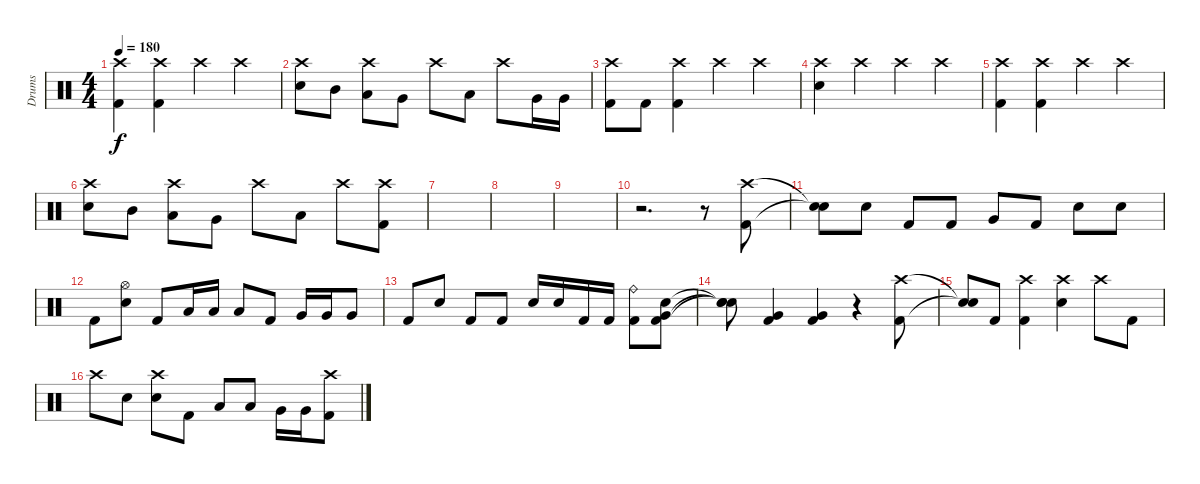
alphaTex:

\track ("Drums" "Drums") {instrument percussion}
\staff {score}
\articulation defaults
\ts (4 4)
\tempo 180
\clef neutral
\ks c
("Crash high (hit)" "Kick (hit) 2").4{dy f} ("Crash high (hit)" "Kick (hit) 2").4 "Crash high (hit)".4 "Crash high (hit)".4 |
("Crash high (hit)" "Electric Snare (hit)").8 "Mid Tom (hit)".8 ("Crash high (hit)" "Low Tom (hit)").8 "Very Low Tom (hit)".8 "Crash high (hit)".8 "Low Tom (hit)".8 "Crash high (hit)".8 "Very Low Tom (hit)".16 "Very Low Tom (hit)".16 |
("Crash high (hit)" "Kick (hit) 2").8 "Kick (hit) 2".8 ("Crash high (hit)" "Kick (hit) 2").4 "Crash high (hit)".4 "Crash high (hit)".4 |
("Crash high (hit)" "Electric Snare (hit)").4 "Crash high (hit)".4 "Crash high (hit)".4 "Crash high (hit)".4 |
("Crash high (hit)" "Kick (hit) 2").4 ("Crash high (hit)" "Kick (hit) 2").4 "Crash high (hit)".4 "Crash high (hit)".4 |
("Crash high (hit)" "Electric Snare (hit)").8 "Mid Tom (hit)".8 ("Crash high (hit)" "Low Tom (hit)").8 "Very Low Tom (hit)".8 "Crash high (hit)".8 "Low Tom (hit)".8 "Crash high (hit)".8 ("Crash high (hit)" "Kick (hit) 2").8 |
|
|
|
r.2{d} r.8 ("Crash high (hit)" "Kick (hit) 2").8 |
("Snare (hit)"{t} "Snare (hit)"{t}).8 "Electric Snare (hit)".8 "Kick (hit) 2".8 "Kick (hit) 2".8 "Very Low Tom (hit)".8 "Kick (hit) 2".8 "Electric Snare (hit)".8 "Electric Snare (hit)".8 |
"Kick (hit) 2".8 ("Hi-Hat (open)" "Electric Snare (hit)").8 "Kick (hit) 2".8 "Low Tom (hit)".16 "Low Tom (hit)".16 "Low Tom (hit)".8 "Kick (hit) 2".8 "Very Low Tom (hit)".16 "Very Low Tom (hit)".16 "Very Low Tom (hit)".8 |
"Kick (hit) 2".8 "Electric Snare (hit)".8 "Kick (hit) 2".8 "Kick (hit) 2".8 "Electric Snare (hit)".16 "Electric Snare (hit)".16 "Kick (hit) 2".16 "Kick (hit) 2".16 ("Ride (bell)" "Kick (hit) 2").8 ("Very Low Tom (hit)" "Electric Snare (hit)" "Kick (hit) 2").8 |
("Snare (hit)"{t} "Electric Snare (hit)"{t} "Snare (hit)"{t}).8 ("Very Low Tom (hit)" "Kick (hit) 2").4 ("Very Low Tom (hit)" "Kick (hit) 2").4 r.4 ("Crash high (hit)" "Kick (hit) 2").8 |
("Snare (hit)"{t} "Snare (hit)"{t}).8 "Kick (hit) 2".8 ("Crash high (hit)" "Kick (hit) 2").4 ("Crash high (hit)" "Electric Snare (hit)").4 "Crash high (hit)".8 "Kick (hit) 2".8 |
"Crash high (hit)".8 "Electric Snare (hit)".8 ("Crash high (hit)" "Electric Snare (hit)").8 "Kick (hit) 2".8 "Low Tom (hit)".8 "Low Tom (hit)".8 "Very Low Tom (hit)".16 "Very Low Tom (hit)".16 ("Crash high (hit)" "Kick (hit) 2").8
